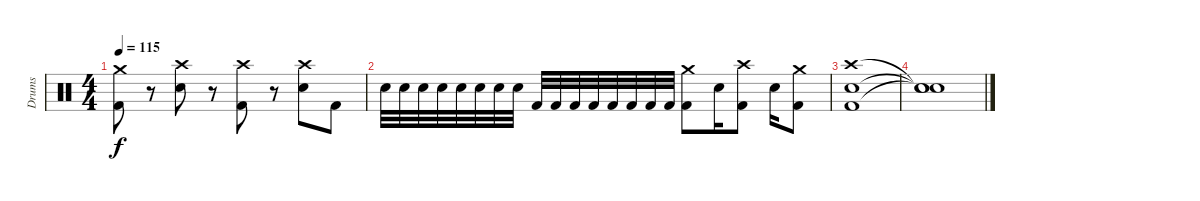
\track ("Drums" "Drums") {instrument percussion}
\staff {score}
\articulation defaults
\ts (4 4)
\tempo 115
\clef neutral
\ks c
("Kick (hit) 2" "Crash medium (hit)").8{dy f} r.8 ("Electric Snare (hit)" "Crash high (hit)").8 r.8 ("Kick (hit) 2" "Crash high (hit)").8 r.8 ("Electric Snare (hit)" "Crash high (hit)").8 "Kick (hit) 2".8 |
"Electric Snare (hit)".32 "Electric Snare (hit)".32 "Electric Snare (hit)".32 "Electric Snare (hit)".32 "Electric Snare (hit)".32 "Electric Snare (hit)".32 "Electric Snare (hit)".32 "Electric Snare (hit)".32 "Kick (hit) 2".32 "Kick (hit) 2".32 "Kick (hit) 2".32 "Kick (hit) 2".32 "Kick (hit) 2".32 "Kick (hit) 2".32 "Kick (hit) 2".32 "Kick (hit) 2".32 ("Kick (hit) 2" "Crash medium (hit)").8 "Electric Snare (hit)".16 ("Kick (hit) 2" "Crash high (hit)").8 "Electric Snare (hit)".16 ("Kick (hit) 2" "Crash medium (hit)").8 |
("Kick (hit) 2" "Electric Snare (hit)" "Crash high (hit)").1 |
("Snare (hit)"{t} "Snare (hit)"{t} "Snare (hit)"{t}).1
